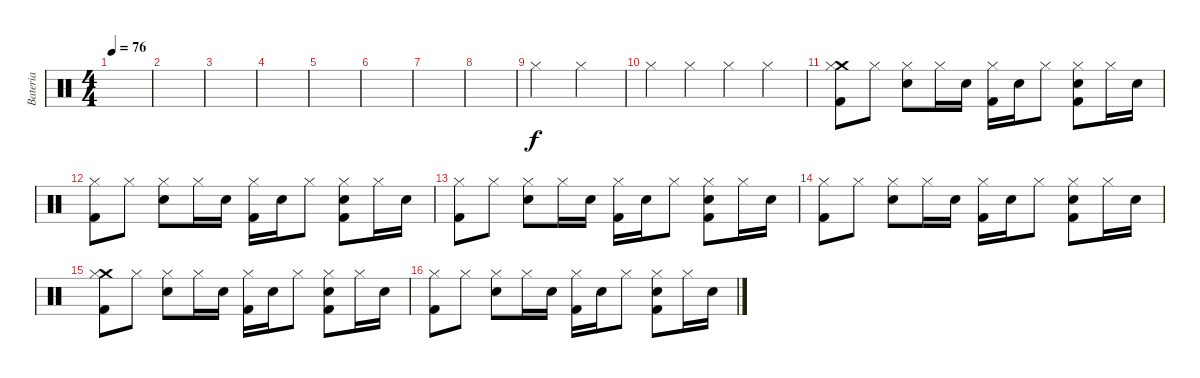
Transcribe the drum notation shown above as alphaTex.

\track ("Bateria" "Bateria") {instrument percussion}
\staff {score}
\articulation defaults
\ts (4 4)
\tempo 76
\clef neutral
\ks c
|
|
|
|
|
|
|
|
"Hi-Hat (closed)".2 "Hi-Hat (closed)".2 |
"Hi-Hat (closed)".4 "Hi-Hat (closed)".4 "Hi-Hat (closed)".4 "Hi-Hat (closed)".4 |
("Crash medium (hit)" "Hi-Hat (closed)" "Kick (hit) 2").8 "Hi-Hat (closed)".8 ("Snare (hit) 2" "Hi-Hat (closed)").8 "Hi-Hat (closed)".16 "Snare (hit) 2".16 ("Hi-Hat (closed)" "Kick (hit) 2").16 "Snare (hit) 2".16 "Hi-Hat (closed)".8 ("Snare (hit) 2" "Hi-Hat (closed)" "Kick (hit) 2").8 "Hi-Hat (closed)".16 "Snare (hit) 2".16 |
("Hi-Hat (closed)" "Kick (hit) 2").8 "Hi-Hat (closed)".8 ("Snare (hit) 2" "Hi-Hat (closed)").8 "Hi-Hat (closed)".16 "Snare (hit) 2".16 ("Hi-Hat (closed)" "Kick (hit) 2").16 "Snare (hit) 2".16 "Hi-Hat (closed)".8 ("Snare (hit) 2" "Hi-Hat (closed)" "Kick (hit) 2").8 "Hi-Hat (closed)".16 "Snare (hit) 2".16 |
("Hi-Hat (closed)" "Kick (hit) 2").8 "Hi-Hat (closed)".8 ("Snare (hit) 2" "Hi-Hat (closed)").8 "Hi-Hat (closed)".16 "Snare (hit) 2".16 ("Hi-Hat (closed)" "Kick (hit) 2").16 "Snare (hit) 2".16 "Hi-Hat (closed)".8 ("Snare (hit) 2" "Hi-Hat (closed)" "Kick (hit) 2").8 "Hi-Hat (closed)".16 "Snare (hit) 2".16 |
("Hi-Hat (closed)" "Kick (hit) 2").8 "Hi-Hat (closed)".8 ("Snare (hit) 2" "Hi-Hat (closed)").8 "Hi-Hat (closed)".16 "Snare (hit) 2".16 ("Hi-Hat (closed)" "Kick (hit) 2").16 "Snare (hit) 2".16 "Hi-Hat (closed)".8 ("Snare (hit) 2" "Hi-Hat (closed)" "Kick (hit) 2").8 "Hi-Hat (closed)".16 "Snare (hit) 2".16 |
("Crash medium (hit)" "Hi-Hat (closed)" "Kick (hit) 2").8 "Hi-Hat (closed)".8 ("Snare (hit) 2" "Hi-Hat (closed)").8 "Hi-Hat (closed)".16 "Snare (hit) 2".16 ("Hi-Hat (closed)" "Kick (hit) 2").16 "Snare (hit) 2".16 "Hi-Hat (closed)".8 ("Snare (hit) 2" "Hi-Hat (closed)" "Kick (hit) 2").8 "Hi-Hat (closed)".16 "Snare (hit) 2".16 |
("Hi-Hat (closed)" "Kick (hit) 2").8 "Hi-Hat (closed)".8 ("Snare (hit) 2" "Hi-Hat (closed)").8 "Hi-Hat (closed)".16 "Snare (hit) 2".16 ("Hi-Hat (closed)" "Kick (hit) 2").16 "Snare (hit) 2".16 "Hi-Hat (closed)".8 ("Snare (hit) 2" "Hi-Hat (closed)" "Kick (hit) 2").8 "Hi-Hat (closed)".16 "Snare (hit) 2".16
